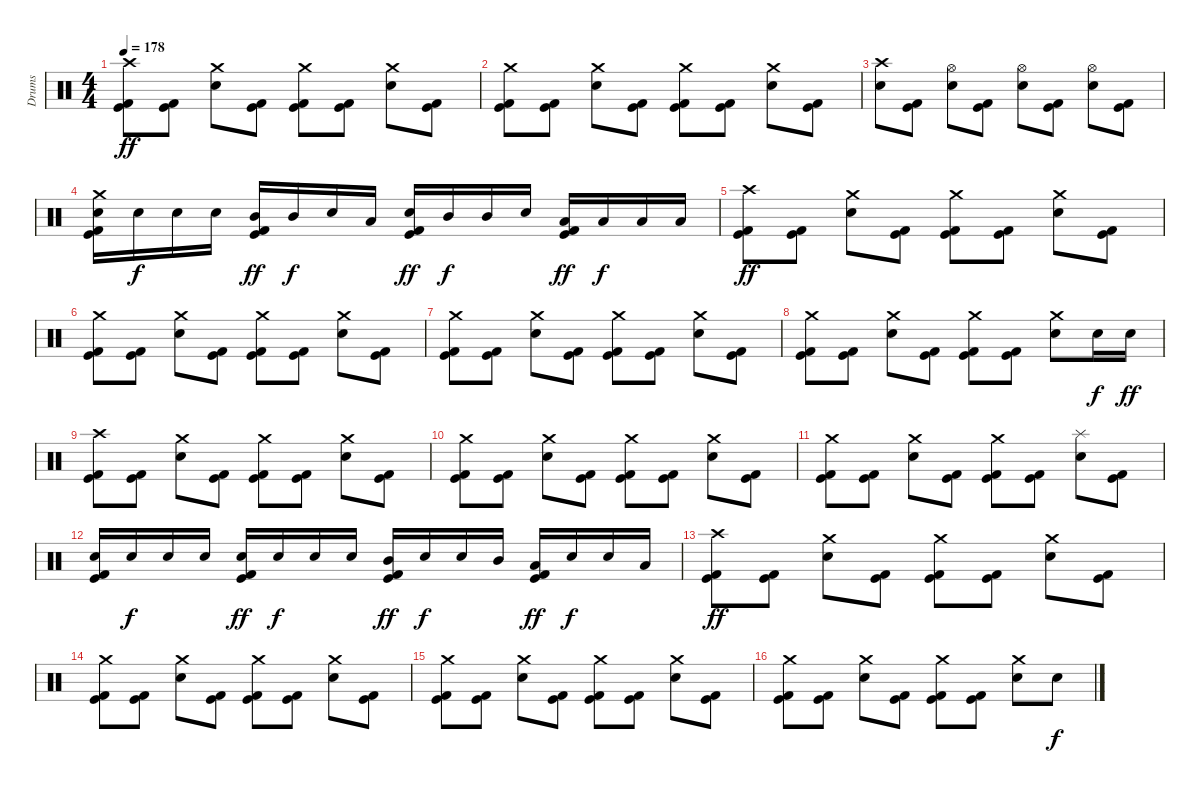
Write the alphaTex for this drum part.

\track ("Drums" "Drums") {instrument percussion}
\staff {score}
\articulation defaults
\ts (4 4)
\tempo 178
\clef neutral
\ks c
("Kick (hit)" "Kick (hit) 2" "Crash high (hit)").8{dy ff} ("Kick (hit)" "Kick (hit) 2").8 ("Electric Snare (hit)" "Crash medium (hit)").8 ("Kick (hit)" "Kick (hit) 2").8 ("Kick (hit)" "Kick (hit) 2" "Crash medium (hit)").8 ("Kick (hit)" "Kick (hit) 2").8 ("Electric Snare (hit)" "Crash medium (hit)").8 ("Kick (hit)" "Kick (hit) 2").8 |
("Kick (hit)" "Kick (hit) 2" "Crash medium (hit)").8 ("Kick (hit)" "Kick (hit) 2").8 ("Electric Snare (hit)" "Crash medium (hit)").8 ("Kick (hit)" "Kick (hit) 2").8 ("Kick (hit)" "Kick (hit) 2" "Crash medium (hit)").8 ("Kick (hit)" "Kick (hit) 2").8 ("Electric Snare (hit)" "Crash medium (hit)").8 ("Kick (hit)" "Kick (hit) 2").8 |
("Electric Snare (hit)" "Crash high (hit)").8 ("Kick (hit)" "Kick (hit) 2").8 ("Electric Snare (hit)" "Hi-Hat (open)").8 ("Kick (hit)" "Kick (hit) 2").8 ("Electric Snare (hit)" "Hi-Hat (open)").8 ("Kick (hit)" "Kick (hit) 2").8 ("Electric Snare (hit)" "Hi-Hat (open)").8 ("Kick (hit)" "Kick (hit) 2").8 |
("Kick (hit)" "Kick (hit) 2" "Electric Snare (hit)" "Crash medium (hit)").16 "Electric Snare (hit)".16{dy f} "Electric Snare (hit)".16 "Electric Snare (hit)".16 ("Kick (hit)" "Kick (hit) 2" "Mid Tom (hit)").16{dy ff} "Mid Tom (hit)".16{dy f} "Electric Snare (hit)".16 "Low Tom (hit)".16 ("Kick (hit)" "Kick (hit) 2" "Electric Snare (hit)").16{dy ff} "Mid Tom (hit)".16{dy f} "Mid Tom (hit)".16 "Electric Snare (hit)".16 ("Kick (hit)" "Kick (hit) 2" "Low Tom (hit)").16{dy ff} "Low Tom (hit)".16{dy f} "Low Tom (hit)".16 "Low Tom (hit)".16 |
("Kick (hit)" "Kick (hit) 2" "Crash high (hit)").8{dy ff} ("Kick (hit)" "Kick (hit) 2").8 ("Electric Snare (hit)" "Crash medium (hit)").8 ("Kick (hit)" "Kick (hit) 2").8 ("Kick (hit)" "Kick (hit) 2" "Crash medium (hit)").8 ("Kick (hit)" "Kick (hit) 2").8 ("Electric Snare (hit)" "Crash medium (hit)").8 ("Kick (hit)" "Kick (hit) 2").8 |
("Kick (hit)" "Kick (hit) 2" "Crash medium (hit)").8 ("Kick (hit)" "Kick (hit) 2").8 ("Electric Snare (hit)" "Crash medium (hit)").8 ("Kick (hit)" "Kick (hit) 2").8 ("Kick (hit)" "Kick (hit) 2" "Crash medium (hit)").8 ("Kick (hit)" "Kick (hit) 2").8 ("Electric Snare (hit)" "Crash medium (hit)").8 ("Kick (hit)" "Kick (hit) 2").8 |
("Kick (hit)" "Kick (hit) 2" "Crash medium (hit)").8 ("Kick (hit)" "Kick (hit) 2").8 ("Electric Snare (hit)" "Crash medium (hit)").8 ("Kick (hit)" "Kick (hit) 2").8 ("Kick (hit)" "Kick (hit) 2" "Crash medium (hit)").8 ("Kick (hit)" "Kick (hit) 2").8 ("Electric Snare (hit)" "Crash medium (hit)").8 ("Kick (hit)" "Kick (hit) 2").8 |
("Kick (hit)" "Kick (hit) 2" "Crash medium (hit)").8 ("Kick (hit)" "Kick (hit) 2").8 ("Electric Snare (hit)" "Crash medium (hit)").8 ("Kick (hit)" "Kick (hit) 2").8 ("Kick (hit)" "Kick (hit) 2" "Crash medium (hit)").8 ("Kick (hit)" "Kick (hit) 2").8 ("Electric Snare (hit)" "Crash medium (hit)").8 "Electric Snare (hit)".16{dy f} "Electric Snare (hit)".16{dy ff} |
("Kick (hit)" "Kick (hit) 2" "Crash high (hit)").8 ("Kick (hit)" "Kick (hit) 2").8 ("Electric Snare (hit)" "Crash medium (hit)").8 ("Kick (hit)" "Kick (hit) 2").8 ("Kick (hit)" "Kick (hit) 2" "Crash medium (hit)").8 ("Kick (hit)" "Kick (hit) 2").8 ("Electric Snare (hit)" "Crash medium (hit)").8 ("Kick (hit)" "Kick (hit) 2").8 |
("Kick (hit)" "Kick (hit) 2" "Crash medium (hit)").8 ("Kick (hit)" "Kick (hit) 2").8 ("Electric Snare (hit)" "Crash medium (hit)").8 ("Kick (hit)" "Kick (hit) 2").8 ("Kick (hit)" "Kick (hit) 2" "Crash medium (hit)").8 ("Kick (hit)" "Kick (hit) 2").8 ("Electric Snare (hit)" "Crash medium (hit)").8 ("Kick (hit)" "Kick (hit) 2").8 |
("Kick (hit)" "Kick (hit) 2" "Crash medium (hit)").8 ("Kick (hit)" "Kick (hit) 2").8 ("Electric Snare (hit)" "Crash medium (hit)").8 ("Kick (hit)" "Kick (hit) 2").8 ("Kick (hit)" "Kick (hit) 2" "Crash medium (hit)").8 ("Kick (hit)" "Kick (hit) 2").8 ("Electric Snare (hit)" "Splash (hit)").8 ("Kick (hit)" "Kick (hit) 2").8 |
("Kick (hit)" "Kick (hit) 2" "Electric Snare (hit)").16 "Electric Snare (hit)".16{dy f} "Electric Snare (hit)".16 "Electric Snare (hit)".16 ("Kick (hit)" "Kick (hit) 2" "Electric Snare (hit)").16{dy ff} "Electric Snare (hit)".16{dy f} "Electric Snare (hit)".16 "Electric Snare (hit)".16 ("Kick (hit)" "Kick (hit) 2" "Mid Tom (hit)").16{dy ff} "Electric Snare (hit)".16{dy f} "Electric Snare (hit)".16 "Mid Tom (hit)".16 ("Kick (hit)" "Kick (hit) 2" "Low Tom (hit)").16{dy ff} "Electric Snare (hit)".16{dy f} "Electric Snare (hit)".16 "Low Tom (hit)".16 |
("Kick (hit)" "Kick (hit) 2" "Crash high (hit)").8{dy ff} ("Kick (hit)" "Kick (hit) 2").8 ("Electric Snare (hit)" "Crash medium (hit)").8 ("Kick (hit)" "Kick (hit) 2").8 ("Kick (hit)" "Kick (hit) 2" "Crash medium (hit)").8 ("Kick (hit)" "Kick (hit) 2").8 ("Electric Snare (hit)" "Crash medium (hit)").8 ("Kick (hit)" "Kick (hit) 2").8 |
("Kick (hit)" "Kick (hit) 2" "Crash medium (hit)").8 ("Kick (hit)" "Kick (hit) 2").8 ("Electric Snare (hit)" "Crash medium (hit)").8 ("Kick (hit)" "Kick (hit) 2").8 ("Kick (hit)" "Kick (hit) 2" "Crash medium (hit)").8 ("Kick (hit)" "Kick (hit) 2").8 ("Electric Snare (hit)" "Crash medium (hit)").8 ("Kick (hit)" "Kick (hit) 2").8 |
("Kick (hit)" "Kick (hit) 2" "Crash medium (hit)").8 ("Kick (hit)" "Kick (hit) 2").8 ("Electric Snare (hit)" "Crash medium (hit)").8 ("Kick (hit)" "Kick (hit) 2").8 ("Kick (hit)" "Kick (hit) 2" "Crash medium (hit)").8 ("Kick (hit)" "Kick (hit) 2").8 ("Electric Snare (hit)" "Crash medium (hit)").8 ("Kick (hit)" "Kick (hit) 2").8 |
("Kick (hit)" "Kick (hit) 2" "Crash medium (hit)").8 ("Kick (hit)" "Kick (hit) 2").8 ("Electric Snare (hit)" "Crash medium (hit)").8 ("Kick (hit)" "Kick (hit) 2").8 ("Kick (hit)" "Kick (hit) 2" "Crash medium (hit)").8 ("Kick (hit)" "Kick (hit) 2").8 ("Electric Snare (hit)" "Crash medium (hit)").8 "Electric Snare (hit)".8{dy f}
